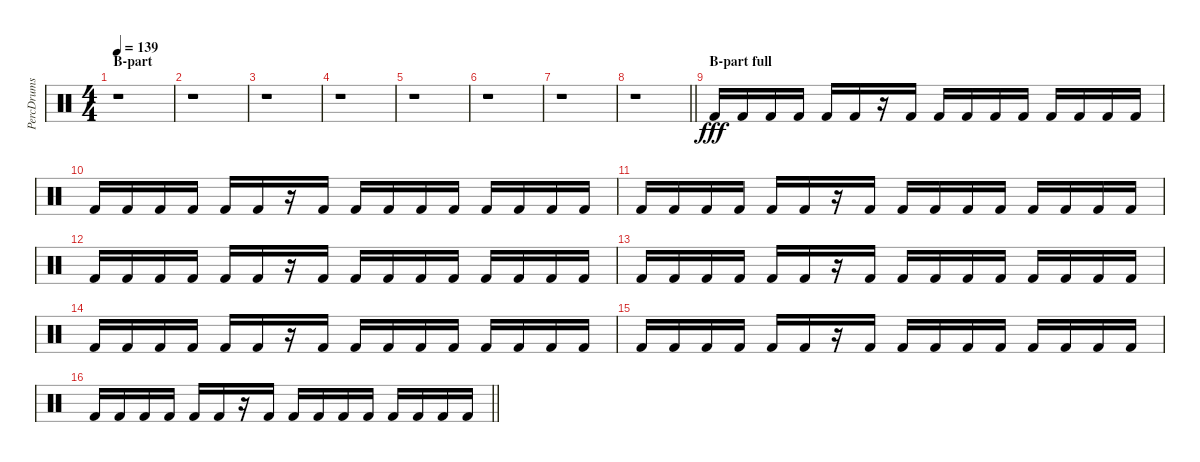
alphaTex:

\track ("PercDrums" "PercDrums") {instrument percussion}
\staff {score}
\articulation defaults
\ts (4 4)
\section ("" "B-part")
\tempo 139
\clef neutral
\ks c
r.1{dy fff} |
r.1 |
r.1 |
r.1 |
r.1 |
r.1 |
r.1 |
\barLineRight lightlight
r.1 |
\section ("" "B-part full")
"Kick (hit) 2".16 "Kick (hit) 2".16 "Kick (hit) 2".16 "Kick (hit) 2".16 "Kick (hit) 2".16 "Kick (hit) 2".16 r.16 "Kick (hit) 2".16 "Kick (hit) 2".16 "Kick (hit) 2".16 "Kick (hit) 2".16 "Kick (hit) 2".16 "Kick (hit) 2".16 "Kick (hit) 2".16 "Kick (hit) 2".16 "Kick (hit) 2".16 |
"Kick (hit) 2".16 "Kick (hit) 2".16 "Kick (hit) 2".16 "Kick (hit) 2".16 "Kick (hit) 2".16 "Kick (hit) 2".16 r.16 "Kick (hit) 2".16 "Kick (hit) 2".16 "Kick (hit) 2".16 "Kick (hit) 2".16 "Kick (hit) 2".16 "Kick (hit) 2".16 "Kick (hit) 2".16 "Kick (hit) 2".16 "Kick (hit) 2".16 |
"Kick (hit) 2".16 "Kick (hit) 2".16 "Kick (hit) 2".16 "Kick (hit) 2".16 "Kick (hit) 2".16 "Kick (hit) 2".16 r.16 "Kick (hit) 2".16 "Kick (hit) 2".16 "Kick (hit) 2".16 "Kick (hit) 2".16 "Kick (hit) 2".16 "Kick (hit) 2".16 "Kick (hit) 2".16 "Kick (hit) 2".16 "Kick (hit) 2".16 |
"Kick (hit) 2".16 "Kick (hit) 2".16 "Kick (hit) 2".16 "Kick (hit) 2".16 "Kick (hit) 2".16 "Kick (hit) 2".16 r.16 "Kick (hit) 2".16 "Kick (hit) 2".16 "Kick (hit) 2".16 "Kick (hit) 2".16 "Kick (hit) 2".16 "Kick (hit) 2".16 "Kick (hit) 2".16 "Kick (hit) 2".16 "Kick (hit) 2".16 |
"Kick (hit) 2".16 "Kick (hit) 2".16 "Kick (hit) 2".16 "Kick (hit) 2".16 "Kick (hit) 2".16 "Kick (hit) 2".16 r.16 "Kick (hit) 2".16 "Kick (hit) 2".16 "Kick (hit) 2".16 "Kick (hit) 2".16 "Kick (hit) 2".16 "Kick (hit) 2".16 "Kick (hit) 2".16 "Kick (hit) 2".16 "Kick (hit) 2".16 |
"Kick (hit) 2".16 "Kick (hit) 2".16 "Kick (hit) 2".16 "Kick (hit) 2".16 "Kick (hit) 2".16 "Kick (hit) 2".16 r.16 "Kick (hit) 2".16 "Kick (hit) 2".16 "Kick (hit) 2".16 "Kick (hit) 2".16 "Kick (hit) 2".16 "Kick (hit) 2".16 "Kick (hit) 2".16 "Kick (hit) 2".16 "Kick (hit) 2".16 |
"Kick (hit) 2".16 "Kick (hit) 2".16 "Kick (hit) 2".16 "Kick (hit) 2".16 "Kick (hit) 2".16 "Kick (hit) 2".16 r.16 "Kick (hit) 2".16 "Kick (hit) 2".16 "Kick (hit) 2".16 "Kick (hit) 2".16 "Kick (hit) 2".16 "Kick (hit) 2".16 "Kick (hit) 2".16 "Kick (hit) 2".16 "Kick (hit) 2".16 |
\barLineRight lightlight "Kick (hit) 2".16 "Kick (hit) 2".16 "Kick (hit) 2".16 "Kick (hit) 2".16 "Kick (hit) 2".16 "Kick (hit) 2".16
r.16 "Kick (hit) 2".16 "Kick (hit) 2".16 "Kick (hit) 2".16 "Kick (hit) 2".16 "Kick (hit) 2".16 "Kick (hit) 2".16 "Kick (hit) 2".16 "Kick (hit) 2".16 "Kick (hit) 2".16
